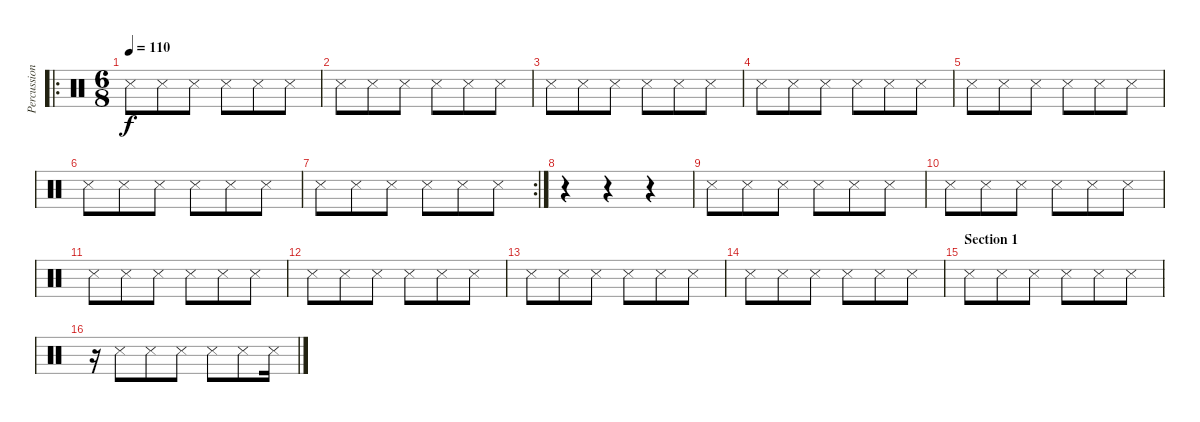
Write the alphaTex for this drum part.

\track ("Percussion" "Percussion") {instrument percussion}
\staff {score}
\articulation defaults
\ro
\ts (6 8)
\tempo 110
\clef neutral
\ks c "Snare (side stick) 3".8{dy f} "Snare (side stick) 3".8 "Snare (side stick) 3".8 "Snare (side stick) 3".8 "Snare (side stick) 3".8 "Snare (side stick) 3".8
|
"Snare (side stick) 3".8 "Snare (side stick) 3".8 "Snare (side stick) 3".8 "Snare (side stick) 3".8 "Snare (side stick) 3".8 "Snare (side stick) 3".8 |
"Snare (side stick) 3".8 "Snare (side stick) 3".8 "Snare (side stick) 3".8 "Snare (side stick) 3".8 "Snare (side stick) 3".8 "Snare (side stick) 3".8 |
"Snare (side stick) 3".8 "Snare (side stick) 3".8 "Snare (side stick) 3".8 "Snare (side stick) 3".8 "Snare (side stick) 3".8 "Snare (side stick) 3".8 |
"Snare (side stick) 3".8 "Snare (side stick) 3".8 "Snare (side stick) 3".8 "Snare (side stick) 3".8 "Snare (side stick) 3".8 "Snare (side stick) 3".8 |
"Snare (side stick) 3".8 "Snare (side stick) 3".8 "Snare (side stick) 3".8 "Snare (side stick) 3".8 "Snare (side stick) 3".8 "Snare (side stick) 3".8 |
\rc 2 "Snare (side stick) 3".8 "Snare (side stick) 3".8 "Snare (side stick) 3".8 "Snare (side stick) 3".8 "Snare (side stick) 3".8 "Snare (side stick) 3".8
|
r.4 r.4 r.4 |
"Snare (side stick) 3".8 "Snare (side stick) 3".8 "Snare (side stick) 3".8 "Snare (side stick) 3".8 "Snare (side stick) 3".8 "Snare (side stick) 3".8 |
"Snare (side stick) 3".8 "Snare (side stick) 3".8 "Snare (side stick) 3".8 "Snare (side stick) 3".8 "Snare (side stick) 3".8 "Snare (side stick) 3".8 |
"Snare (side stick) 3".8 "Snare (side stick) 3".8 "Snare (side stick) 3".8 "Snare (side stick) 3".8 "Snare (side stick) 3".8 "Snare (side stick) 3".8 |
"Snare (side stick) 3".8 "Snare (side stick) 3".8 "Snare (side stick) 3".8 "Snare (side stick) 3".8 "Snare (side stick) 3".8 "Snare (side stick) 3".8 |
"Snare (side stick) 3".8 "Snare (side stick) 3".8 "Snare (side stick) 3".8 "Snare (side stick) 3".8 "Snare (side stick) 3".8 "Snare (side stick) 3".8 |
"Snare (side stick) 3".8 "Snare (side stick) 3".8 "Snare (side stick) 3".8 "Snare (side stick) 3".8 "Snare (side stick) 3".8 "Snare (side stick) 3".8 |
\section ("" "Section 1")
"Snare (side stick) 3".8 "Snare (side stick) 3".8 "Snare (side stick) 3".8 "Snare (side stick) 3".8 "Snare (side stick) 3".8 "Snare (side stick) 3".8 |
r.16 "Snare (side stick) 3".8 "Snare (side stick) 3".8 "Snare (side stick) 3".8 "Snare (side stick) 3".8 "Snare (side stick) 3".8 "Snare (side stick) 3".16
